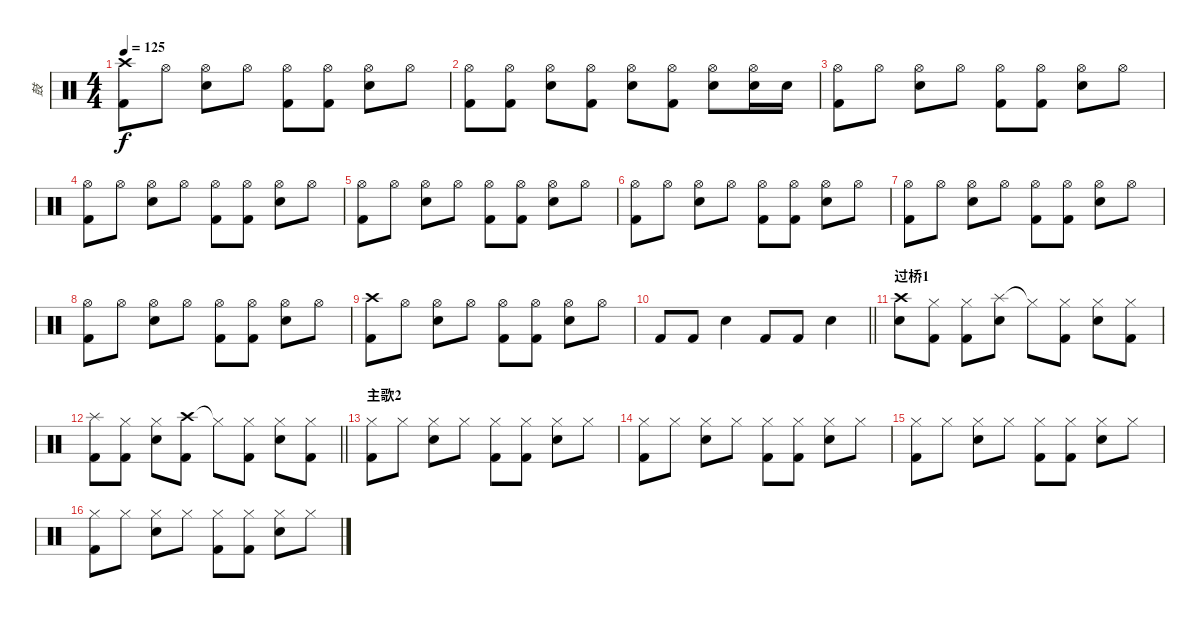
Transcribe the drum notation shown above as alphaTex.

\track ("鼓" "鼓") {instrument percussion}
\staff {score}
\articulation defaults
\ts (4 4)
\tempo 125
\clef neutral
\ks c
("Crash high (hit)" "Kick (hit) 2").8{dy f} "Hi-Hat (open)".8 ("Hi-Hat (open)" "Snare (hit) 2").8 "Hi-Hat (open)".8 ("Hi-Hat (open)" "Kick (hit) 2").8 ("Hi-Hat (open)" "Kick (hit) 2").8 ("Hi-Hat (open)" "Snare (hit) 2").8 "Hi-Hat (open)".8 |
("Hi-Hat (open)" "Kick (hit) 2").8 ("Hi-Hat (open)" "Kick (hit) 2").8 ("Hi-Hat (open)" "Snare (hit) 2").8 ("Hi-Hat (open)" "Kick (hit) 2").8 ("Hi-Hat (open)" "Snare (hit) 2").8 ("Hi-Hat (open)" "Kick (hit) 2").8 ("Hi-Hat (open)" "Snare (hit) 2").8 ("Hi-Hat (open)" "Snare (hit) 2").16 "Snare (hit) 2".16 |
("Hi-Hat (open)" "Kick (hit) 2").8 "Hi-Hat (open)".8 ("Hi-Hat (open)" "Snare (hit) 2").8 "Hi-Hat (open)".8 ("Hi-Hat (open)" "Kick (hit) 2").8 ("Hi-Hat (open)" "Kick (hit) 2").8 ("Hi-Hat (open)" "Snare (hit) 2").8 "Hi-Hat (open)".8 |
("Hi-Hat (open)" "Kick (hit) 2").8 "Hi-Hat (open)".8 ("Hi-Hat (open)" "Snare (hit) 2").8 "Hi-Hat (open)".8 ("Hi-Hat (open)" "Kick (hit) 2").8 ("Hi-Hat (open)" "Kick (hit) 2").8 ("Hi-Hat (open)" "Snare (hit) 2").8 "Hi-Hat (open)".8 |
("Hi-Hat (open)" "Kick (hit) 2").8 "Hi-Hat (open)".8 ("Hi-Hat (open)" "Snare (hit) 2").8 "Hi-Hat (open)".8 ("Hi-Hat (open)" "Kick (hit) 2").8 ("Hi-Hat (open)" "Kick (hit) 2").8 ("Hi-Hat (open)" "Snare (hit) 2").8 "Hi-Hat (open)".8 |
("Hi-Hat (open)" "Kick (hit) 2").8 "Hi-Hat (open)".8 ("Hi-Hat (open)" "Snare (hit) 2").8 "Hi-Hat (open)".8 ("Hi-Hat (open)" "Kick (hit) 2").8 ("Hi-Hat (open)" "Kick (hit) 2").8 ("Hi-Hat (open)" "Snare (hit) 2").8 "Hi-Hat (open)".8 |
("Hi-Hat (open)" "Kick (hit) 2").8 "Hi-Hat (open)".8 ("Hi-Hat (open)" "Snare (hit) 2").8 "Hi-Hat (open)".8 ("Hi-Hat (open)" "Kick (hit) 2").8 ("Hi-Hat (open)" "Kick (hit) 2").8 ("Hi-Hat (open)" "Snare (hit) 2").8 "Hi-Hat (open)".8 |
("Hi-Hat (open)" "Kick (hit) 2").8 "Hi-Hat (open)".8 ("Hi-Hat (open)" "Snare (hit) 2").8 "Hi-Hat (open)".8 ("Hi-Hat (open)" "Kick (hit) 2").8 ("Hi-Hat (open)" "Kick (hit) 2").8 ("Hi-Hat (open)" "Snare (hit) 2").8 "Hi-Hat (open)".8 |
("Crash high (hit)" "Kick (hit) 2").8 "Hi-Hat (open)".8 ("Hi-Hat (open)" "Snare (hit) 2").8 "Hi-Hat (open)".8 ("Hi-Hat (open)" "Kick (hit) 2").8 ("Hi-Hat (open)" "Kick (hit) 2").8 ("Hi-Hat (open)" "Snare (hit) 2").8 "Hi-Hat (open)".8 |
\barLineRight lightlight "Kick (hit) 2".8 "Kick (hit) 2".8 "Snare (hit) 2".4 "Kick (hit) 2".8 "Kick (hit) 2".8 "Snare (hit) 2".4
|
\section ("" "过桥1")
("Crash high (hit)" "Snare (hit) 2").8 ("Hi-Hat (closed)" "Kick (hit) 2").8 ("Hi-Hat (closed)" "Kick (hit) 2").8 ("Splash (hit)" "Snare (hit) 2").8 "Hi-Hat (closed)"{t}.8 ("Hi-Hat (closed)" "Kick (hit) 2").8 ("Hi-Hat (closed)" "Snare (hit) 2").8 ("Hi-Hat (closed)" "Kick (hit) 2").8 |
\barLineRight lightlight
("Splash (hit)" "Kick (hit) 2").8 ("Hi-Hat (closed)" "Kick (hit) 2").8 ("Hi-Hat (closed)" "Snare (hit) 2").8 ("Crash high (hit)" "Kick (hit) 2").8 "Hi-Hat (closed)"{t}.8 ("Hi-Hat (closed)" "Kick (hit) 2").8 ("Hi-Hat (closed)" "Snare (hit) 2").8 ("Hi-Hat (closed)" "Kick (hit) 2").8 |
\section ("" "主歌2")
("Hi-Hat (closed)" "Kick (hit) 2").8 "Hi-Hat (closed)".8 ("Hi-Hat (closed)" "Snare (hit) 2").8 "Hi-Hat (closed)".8 ("Hi-Hat (closed)" "Kick (hit) 2").8 ("Hi-Hat (closed)" "Kick (hit) 2").8 ("Hi-Hat (closed)" "Snare (hit) 2").8 "Hi-Hat (closed)".8 |
("Hi-Hat (closed)" "Kick (hit) 2").8 "Hi-Hat (closed)".8 ("Hi-Hat (closed)" "Snare (hit) 2").8 "Hi-Hat (closed)".8 ("Hi-Hat (closed)" "Kick (hit) 2").8 ("Hi-Hat (closed)" "Kick (hit) 2").8 ("Hi-Hat (closed)" "Snare (hit) 2").8 "Hi-Hat (closed)".8 |
("Hi-Hat (closed)" "Kick (hit) 2").8 "Hi-Hat (closed)".8 ("Hi-Hat (closed)" "Snare (hit) 2").8 "Hi-Hat (closed)".8 ("Hi-Hat (closed)" "Kick (hit) 2").8 ("Hi-Hat (closed)" "Kick (hit) 2").8 ("Hi-Hat (closed)" "Snare (hit) 2").8 "Hi-Hat (closed)".8 |
("Hi-Hat (closed)" "Kick (hit) 2").8 "Hi-Hat (closed)".8 ("Hi-Hat (closed)" "Snare (hit) 2").8 "Hi-Hat (closed)".8 ("Hi-Hat (closed)" "Kick (hit) 2").8 ("Hi-Hat (closed)" "Kick (hit) 2").8 ("Hi-Hat (closed)" "Snare (hit) 2").8 "Hi-Hat (closed)".8
